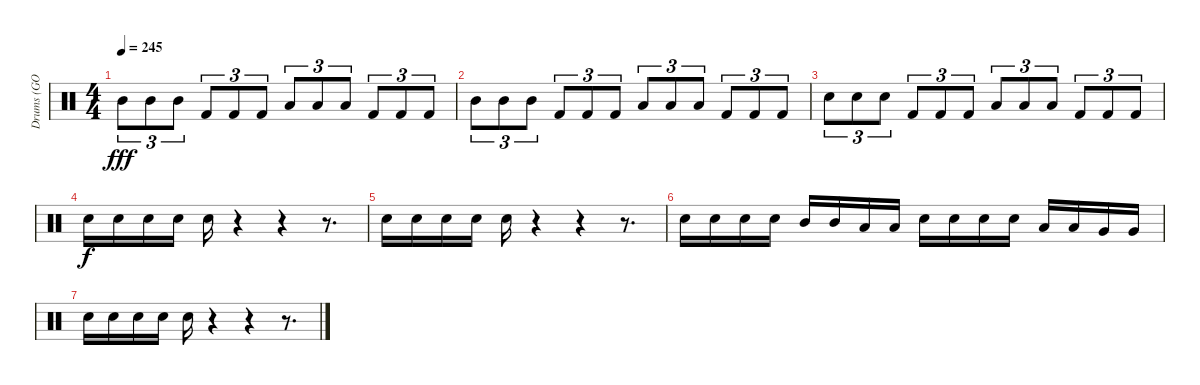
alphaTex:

\track ("Drums (GO DIRK)" "Drums (GO ") {instrument percussion}
\staff {score}
\articulation defaults
\ts (4 4)
\tempo 245
\clef neutral
\ks c "Mid Tom (hit)".8{tu (3 2) dy fff} "Mid Tom (hit)".8{tu (3 2)} "Mid Tom (hit)".8{tu (3 2)} "Kick (hit) 2".8{tu (3 2)} "Kick (hit) 2".8{tu (3 2)} "Kick (hit) 2".8{tu (3 2)} "Low Tom (hit)".8{tu (3 2)} "Low Tom (hit)".8{tu (3 2)} "Low Tom (hit)".8{tu (3 2)} "Kick (hit) 2".8{tu (3 2)} "Kick (hit) 2".8{tu (3 2)} "Kick (hit) 2".8{tu (3 2)}
|
"Mid Tom (hit)".8{tu (3 2)} "Mid Tom (hit)".8{tu (3 2)} "Mid Tom (hit)".8{tu (3 2)} "Kick (hit) 2".8{tu (3 2)} "Kick (hit) 2".8{tu (3 2)} "Kick (hit) 2".8{tu (3 2)} "Low Tom (hit)".8{tu (3 2)} "Low Tom (hit)".8{tu (3 2)} "Low Tom (hit)".8{tu (3 2)} "Kick (hit) 2".8{tu (3 2)} "Kick (hit) 2".8{tu (3 2)} "Kick (hit) 2".8{tu (3 2)} |
"Electric Snare (hit)".8{tu (3 2)} "Electric Snare (hit)".8{tu (3 2)} "Electric Snare (hit)".8{tu (3 2)} "Kick (hit) 2".8{tu (3 2)} "Kick (hit) 2".8{tu (3 2)} "Kick (hit) 2".8{tu (3 2)} "Low Tom (hit)".8{tu (3 2)} "Low Tom (hit)".8{tu (3 2)} "Low Tom (hit)".8{tu (3 2)} "Kick (hit) 2".8{tu (3 2)} "Kick (hit) 2".8{tu (3 2)} "Kick (hit) 2".8{tu (3 2)} |
"Electric Snare (hit)".16{dy f} "Electric Snare (hit)".16 "Electric Snare (hit)".16 "Electric Snare (hit)".16 "Electric Snare (hit)".16 r.4 r.4 r.8{d} |
"Electric Snare (hit)".16 "Electric Snare (hit)".16 "Electric Snare (hit)".16 "Electric Snare (hit)".16 "Electric Snare (hit)".16 r.4 r.4 r.8{d} |
"Electric Snare (hit)".16 "Electric Snare (hit)".16 "Electric Snare (hit)".16 "Electric Snare (hit)".16 "Mid Tom (hit)".16 "Mid Tom (hit)".16 "Low Tom (hit)".16 "Low Tom (hit)".16 "Electric Snare (hit)".16 "Electric Snare (hit)".16 "Electric Snare (hit)".16 "Electric Snare (hit)".16 "Low Tom (hit)".16 "Low Tom (hit)".16 "Very Low Tom (hit)".16 "Very Low Tom (hit)".16 |
"Electric Snare (hit)".16 "Electric Snare (hit)".16 "Electric Snare (hit)".16 "Electric Snare (hit)".16 "Electric Snare (hit)".16 r.4 r.4 r.8{d}
